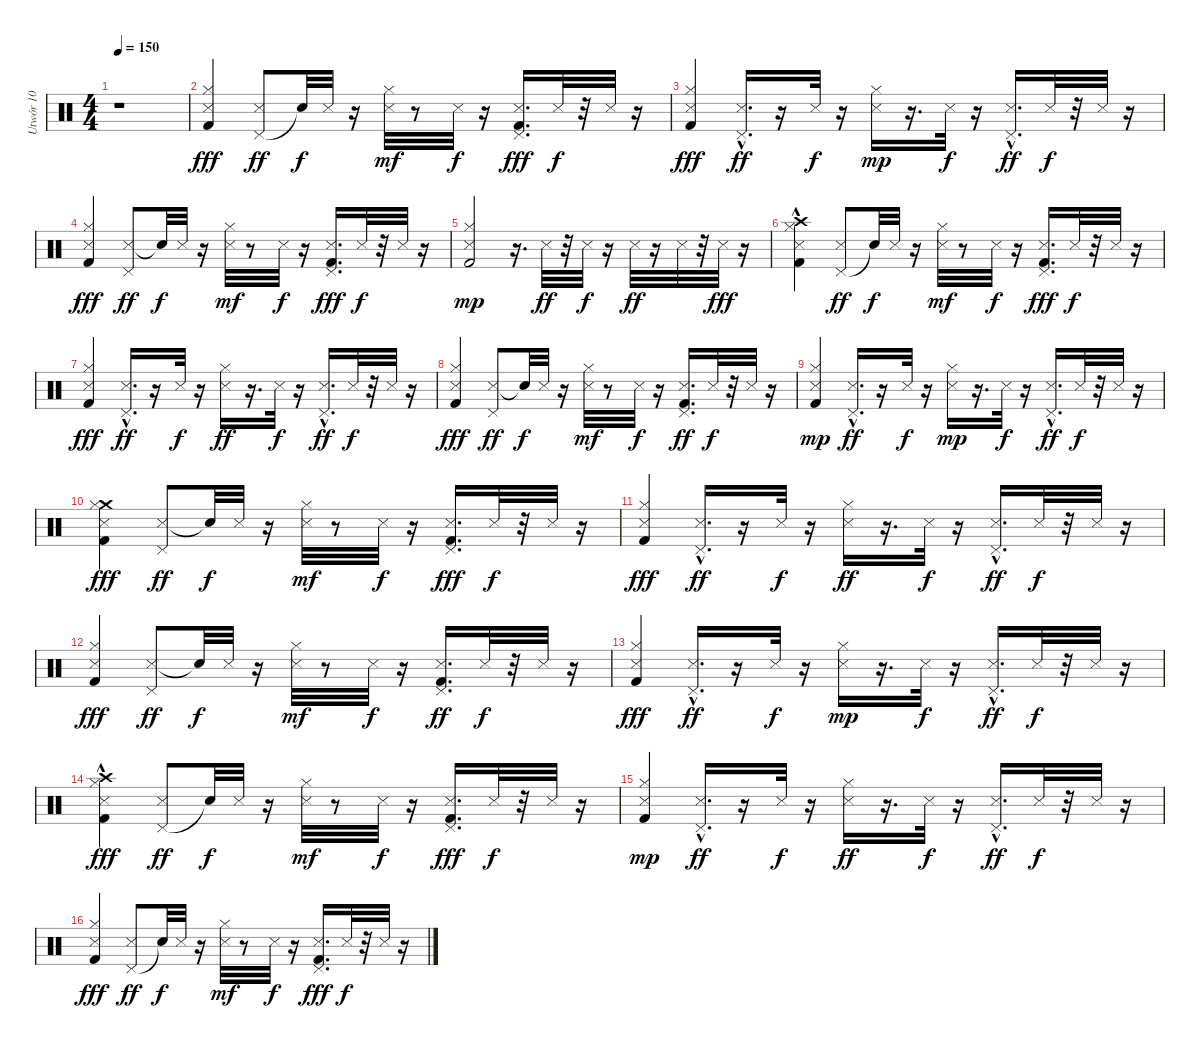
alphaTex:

\track ("Utwór 10" "Utwór 10") {instrument percussion}
\staff {score}
\articulation defaults
\ts (4 4)
\tempo 150
\clef neutral
\ks c
r.1{dy fff} |
("Snare (side stick) 3" "Hi-Hat (closed)" "Kick (hit) 2").4 ("Pedal Hi-Hat (hit)" "Snare (side stick) 3").8{dy ff} "Snare (hit)"{t}.32{dy f} "Snare (side stick) 3".32 r.16 ("Hi-Hat (closed)" "Snare (side stick) 3").32{dy mf} r.8 "Snare (side stick) 3".32{dy f} r.16 ("Pedal Hi-Hat (hit)" "Kick (hit) 2" "Snare (side stick) 3").16{d dy fff} "Snare (side stick) 3".32{dy f} r.32 "Snare (side stick) 3".32 r.16 |
("Hi-Hat (closed)" "Snare (side stick) 3" "Kick (hit) 2").4{dy fff} ("Snare (side stick) 3" "Pedal Hi-Hat (hit)"{hac}).16{d dy ff} r.16 "Snare (side stick) 3".32{dy f} r.16 ("Snare (side stick) 3" "Hi-Hat (closed)").16{dy mp} r.16{d} "Snare (side stick) 3".32{dy f} r.16 ("Pedal Hi-Hat (hit)"{hac} "Snare (side stick) 3").16{d dy ff} "Snare (side stick) 3".32{dy f} r.32 "Snare (side stick) 3".32 r.16 |
("Kick (hit) 2" "Hi-Hat (closed)" "Snare (side stick) 3").4{dy fff} ("Snare (side stick) 3" "Pedal Hi-Hat (hit)").8{dy ff} "Snare (hit)"{t}.32{dy f} "Snare (side stick) 3".32 r.16 ("Snare (side stick) 3" "Hi-Hat (closed)").32{dy mf} r.8 "Snare (side stick) 3".32{dy f} r.16 ("Snare (side stick) 3" "Pedal Hi-Hat (hit)" "Kick (hit) 2").16{d dy fff} "Snare (side stick) 3".32{dy f} r.32 "Snare (side stick) 3".32 r.16 |
("Kick (hit) 2" "Snare (side stick) 3" "Hi-Hat (closed)").2{dy mp} r.16{d} "Snare (side stick) 3".32{dy ff} r.32 "Snare (side stick) 3".32{dy f} r.16 "Snare (side stick) 3".32{dy ff} r.16 "Snare (side stick) 3".32 r.32 "Snare (side stick) 3".32{dy fff} r.16 |
("Hi-Hat (closed)" "Snare (side stick) 3" "Crash high (hit)"{hac} "Kick (hit) 2").4 ("Pedal Hi-Hat (hit)" "Snare (side stick) 3").8{dy ff} "Snare (hit)"{t}.32{dy f} "Snare (side stick) 3".32 r.16 ("Hi-Hat (closed)" "Snare (side stick) 3").32{dy mf} r.8 "Snare (side stick) 3".32{dy f} r.16 ("Pedal Hi-Hat (hit)" "Snare (side stick) 3" "Kick (hit) 2").16{d dy fff} "Snare (side stick) 3".32{dy f} r.32 "Snare (side stick) 3".32 r.16 |
("Hi-Hat (closed)" "Snare (side stick) 3" "Kick (hit) 2").4{dy fff} ("Snare (side stick) 3" "Pedal Hi-Hat (hit)"{hac}).16{d dy ff} r.16 "Snare (side stick) 3".32{dy f} r.16 ("Hi-Hat (closed)" "Snare (side stick) 3").16{dy ff} r.16{d} "Snare (side stick) 3".32{dy f} r.16 ("Pedal Hi-Hat (hit)"{hac} "Snare (side stick) 3").16{d dy ff} "Snare (side stick) 3".32{dy f} r.32 "Snare (side stick) 3".32 r.16 |
("Hi-Hat (closed)" "Kick (hit) 2" "Snare (side stick) 3").4{dy fff} ("Snare (side stick) 3" "Pedal Hi-Hat (hit)").8{dy ff} "Snare (hit)"{t}.32{dy f} "Snare (side stick) 3".32 r.16 ("Snare (side stick) 3" "Hi-Hat (closed)").32{dy mf} r.8 "Snare (side stick) 3".32{dy f} r.16 ("Kick (hit) 2" "Snare (side stick) 3" "Pedal Hi-Hat (hit)").16{d dy ff} "Snare (side stick) 3".32{dy f} r.32 "Snare (side stick) 3".32 r.16 |
("Snare (side stick) 3" "Kick (hit) 2" "Hi-Hat (closed)").4{dy mp} ("Pedal Hi-Hat (hit)"{hac} "Snare (side stick) 3").16{d dy ff} r.16 "Snare (side stick) 3".32{dy f} r.16 ("Snare (side stick) 3" "Hi-Hat (closed)").16{dy mp} r.16{d} "Snare (side stick) 3".32{dy f} r.16 ("Snare (side stick) 3" "Pedal Hi-Hat (hit)"{hac}).16{d dy ff} "Snare (side stick) 3".32{dy f} r.32 "Snare (side stick) 3".32 r.16 |
("Snare (side stick) 3" "Kick (hit) 2" "Crash medium (hit)" "Hi-Hat (closed)").4{dy fff} ("Snare (side stick) 3" "Pedal Hi-Hat (hit)").8{dy ff} "Snare (hit)"{t}.32{dy f} "Snare (side stick) 3".32 r.16 ("Hi-Hat (closed)" "Snare (side stick) 3").32{dy mf} r.8 "Snare (side stick) 3".32{dy f} r.16 ("Pedal Hi-Hat (hit)" "Snare (side stick) 3" "Kick (hit) 2").16{d dy fff} "Snare (side stick) 3".32{dy f} r.32 "Snare (side stick) 3".32 r.16 |
("Hi-Hat (closed)" "Snare (side stick) 3" "Kick (hit) 2").4{dy fff} ("Snare (side stick) 3" "Pedal Hi-Hat (hit)"{hac}).16{d dy ff} r.16 "Snare (side stick) 3".32{dy f} r.16 ("Hi-Hat (closed)" "Snare (side stick) 3").16{dy ff} r.16{d} "Snare (side stick) 3".32{dy f} r.16 ("Snare (side stick) 3" "Pedal Hi-Hat (hit)"{hac}).16{d dy ff} "Snare (side stick) 3".32{dy f} r.32 "Snare (side stick) 3".32 r.16 |
("Kick (hit) 2" "Hi-Hat (closed)" "Snare (side stick) 3").4{dy fff} ("Snare (side stick) 3" "Pedal Hi-Hat (hit)").8{dy ff} "Snare (hit)"{t}.32{dy f} "Snare (side stick) 3".32 r.16 ("Snare (side stick) 3" "Hi-Hat (closed)").32{dy mf} r.8 "Snare (side stick) 3".32{dy f} r.16 ("Kick (hit) 2" "Snare (side stick) 3" "Pedal Hi-Hat (hit)").16{d dy ff} "Snare (side stick) 3".32{dy f} r.32 "Snare (side stick) 3".32 r.16 |
("Snare (side stick) 3" "Hi-Hat (closed)" "Kick (hit) 2").4{dy fff} ("Snare (side stick) 3" "Pedal Hi-Hat (hit)"{hac}).16{d dy ff} r.16 "Snare (side stick) 3".32{dy f} r.16 ("Snare (side stick) 3" "Hi-Hat (closed)").16{dy mp} r.16{d} "Snare (side stick) 3".32{dy f} r.16 ("Pedal Hi-Hat (hit)"{hac} "Snare (side stick) 3").16{d dy ff} "Snare (side stick) 3".32{dy f} r.32 "Snare (side stick) 3".32 r.16 |
("Crash high (hit)"{hac} "Snare (side stick) 3" "Hi-Hat (closed)" "Kick (hit) 2").4{dy fff} ("Pedal Hi-Hat (hit)" "Snare (side stick) 3").8{dy ff} "Snare (hit)"{t}.32{dy f} "Snare (side stick) 3".32 r.16 ("Hi-Hat (closed)" "Snare (side stick) 3").32{dy mf} r.8 "Snare (side stick) 3".32{dy f} r.16 ("Pedal Hi-Hat (hit)" "Snare (side stick) 3" "Kick (hit) 2").16{d dy fff} "Snare (side stick) 3".32{dy f} r.32 "Snare (side stick) 3".32 r.16 |
("Kick (hit) 2" "Hi-Hat (closed)" "Snare (side stick) 3").4{dy mp} ("Snare (side stick) 3" "Pedal Hi-Hat (hit)"{hac}).16{d dy ff} r.16 "Snare (side stick) 3".32{dy f} r.16 ("Hi-Hat (closed)" "Snare (side stick) 3").16{dy ff} r.16{d} "Snare (side stick) 3".32{dy f} r.16 ("Pedal Hi-Hat (hit)"{hac} "Snare (side stick) 3").16{d dy ff} "Snare (side stick) 3".32{dy f} r.32 "Snare (side stick) 3".32 r.16 |
("Snare (side stick) 3" "Kick (hit) 2" "Hi-Hat (closed)").4{dy fff} ("Pedal Hi-Hat (hit)" "Snare (side stick) 3").8{dy ff} "Snare (hit)"{t}.32{dy f} "Snare (side stick) 3".32 r.16 ("Snare (side stick) 3" "Hi-Hat (closed)").32{dy mf} r.8 "Snare (side stick) 3".32{dy f} r.16 ("Pedal Hi-Hat (hit)" "Snare (side stick) 3" "Kick (hit) 2").16{d dy fff} "Snare (side stick) 3".32{dy f} r.32 "Snare (side stick) 3".32 r.16
